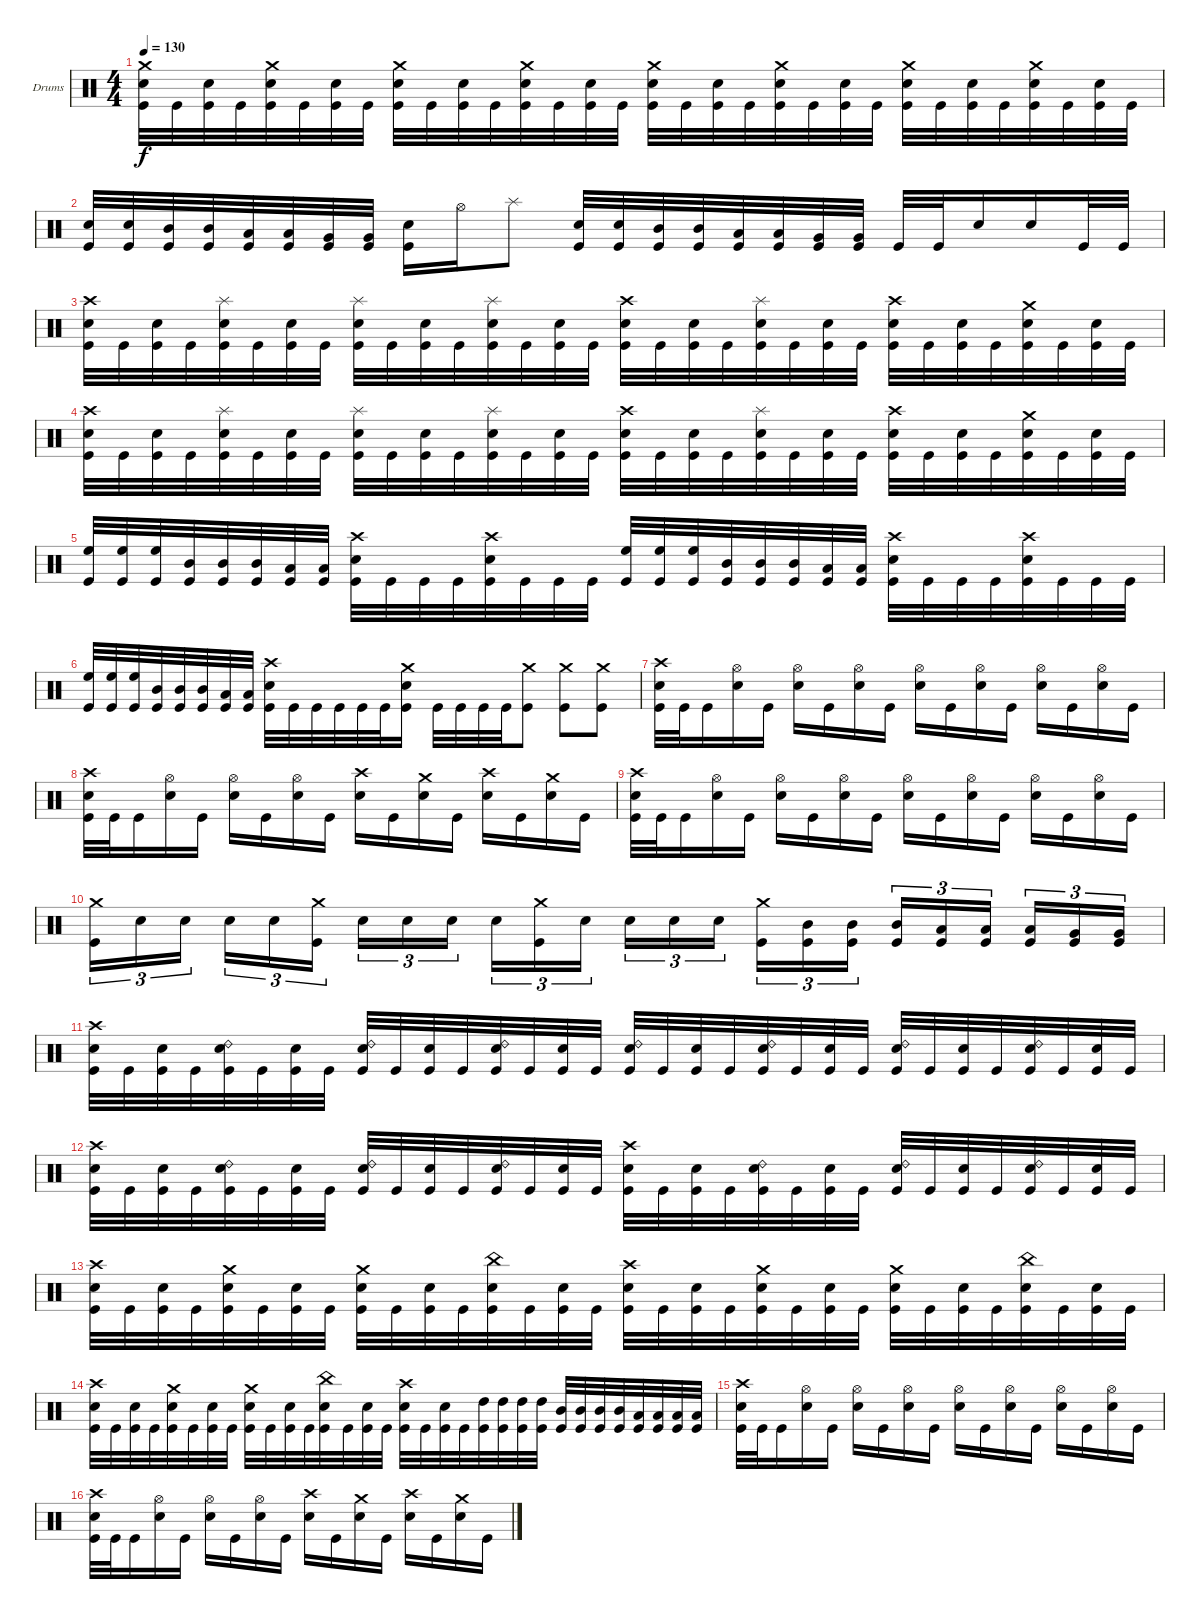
\defaultSystemsLayout 4
\bracketExtendMode groupsimilarinstruments
\firstSystemTrackNameOrientation horizontal
\otherSystemsTrackNameOrientation horizontal
\track ("Drumkit" "Drums") {instrument percussion}
\staff {score}
\articulation defaults
\ts (4 4)
\tempo 130
\clef neutral
\scale
0.472222
\ks c
("Kick (hit)" "Snare (hit) 2" "Crash medium (hit)").32{dy f} "Kick (hit)".32 ("Kick (hit)" "Snare (hit) 2").32 "Kick (hit)".32 ("Kick (hit)" "Snare (hit) 2" "Crash medium (hit)").32 "Kick (hit)".32 ("Kick (hit)" "Snare (hit) 2").32 "Kick (hit)".32 ("Kick (hit)" "Snare (hit) 2" "Crash medium (hit)").32 "Kick (hit)".32 ("Kick (hit)" "Snare (hit) 2").32 "Kick (hit)".32 ("Kick (hit)" "Snare (hit) 2" "Crash medium (hit)").32 "Kick (hit)".32 ("Kick (hit)" "Snare (hit) 2").32 "Kick (hit)".32 ("Kick (hit)" "Snare (hit) 2" "Crash medium (hit)").32 "Kick (hit)".32 ("Kick (hit)" "Snare (hit) 2").32 "Kick (hit)".32 ("Kick (hit)" "Snare (hit) 2" "Crash medium (hit)").32 "Kick (hit)".32 ("Kick (hit)" "Snare (hit) 2").32 "Kick (hit)".32 ("Kick (hit)" "Snare (hit) 2" "Crash medium (hit)").32 "Kick (hit)".32 ("Kick (hit)" "Snare (hit) 2").32 "Kick (hit)".32 ("Kick (hit)" "Snare (hit) 2" "Crash medium (hit)").32 "Kick (hit)".32 ("Kick (hit)" "Snare (hit) 2").32 "Kick (hit)".32 |
\scale
0.263889 ("Kick (hit)" "Snare (hit) 2").32 ("Kick (hit)" "Snare (hit) 2").32 ("Kick (hit)" "Mid Tom (hit)").32 ("Kick (hit)" "Mid Tom (hit)").32 ("Kick (hit)" "Low Tom (hit)").32 ("Kick (hit)" "Low Tom (hit)").32 ("Kick (hit)" "Very Low Tom (hit)").32 ("Kick (hit)" "Very Low Tom (hit)").32 ("Snare (hit) 2" "Kick (hit)").16 "Hi-Hat (open)".16 "Splash (hit)".8 ("Kick (hit)" "Snare (hit) 2").32 ("Kick (hit)" "Snare (hit) 2").32 ("Kick (hit)" "Mid Tom (hit)").32 ("Kick (hit)" "Mid Tom (hit)").32 ("Kick (hit)" "Low Tom (hit)").32 ("Kick (hit)" "Low Tom (hit)").32 ("Kick (hit)" "Very Low Tom (hit)").32 ("Kick (hit)" "Very Low Tom (hit)").32 "Kick (hit)".32 "Kick (hit)".32 "Snare (hit) 2".16 "Snare (hit) 2".16 "Kick (hit)".32 "Kick (hit)".32 |
\scale
0.263889 ("Snare (hit) 2" "Kick (hit)" "Crash high (hit)").32 "Kick (hit)".32 ("Snare (hit) 2" "Kick (hit)").32 "Kick (hit)".32 ("Snare (hit) 2" "Kick (hit)" "Splash (hit)").32 "Kick (hit)".32 ("Snare (hit) 2" "Kick (hit)").32 "Kick (hit)".32 ("Snare (hit) 2" "Kick (hit)" "Splash (hit)").32 "Kick (hit)".32 ("Snare (hit) 2" "Kick (hit)").32 "Kick (hit)".32 ("Snare (hit) 2" "Kick (hit)" "Splash (hit)").32 "Kick (hit)".32 ("Snare (hit) 2" "Kick (hit)").32 "Kick (hit)".32 ("Snare (hit) 2" "Kick (hit)" "Crash high (hit)").32 "Kick (hit)".32 ("Snare (hit) 2" "Kick (hit)").32 "Kick (hit)".32 ("Snare (hit) 2" "Kick (hit)" "Splash (hit)").32 "Kick (hit)".32 ("Snare (hit) 2" "Kick (hit)").32 "Kick (hit)".32 ("Snare (hit) 2" "Kick (hit)" "Crash high (hit)").32 "Kick (hit)".32 ("Snare (hit) 2" "Kick (hit)").32 "Kick (hit)".32 ("Snare (hit) 2" "Kick (hit)" "Crash medium (hit)").32 "Kick (hit)".32 ("Snare (hit) 2" "Kick (hit)").32 "Kick (hit)".32 |
\scale
0.333333 ("Snare (hit) 2" "Kick (hit)" "Crash high (hit)").32 "Kick (hit)".32 ("Snare (hit) 2" "Kick (hit)").32 "Kick (hit)".32 ("Snare (hit) 2" "Kick (hit)" "Splash (hit)").32 "Kick (hit)".32 ("Snare (hit) 2" "Kick (hit)").32 "Kick (hit)".32 ("Snare (hit) 2" "Kick (hit)" "Splash (hit)").32 "Kick (hit)".32 ("Snare (hit) 2" "Kick (hit)").32 "Kick (hit)".32 ("Snare (hit) 2" "Kick (hit)" "Splash (hit)").32 "Kick (hit)".32 ("Snare (hit) 2" "Kick (hit)").32 "Kick (hit)".32 ("Snare (hit) 2" "Kick (hit)" "Crash high (hit)").32 "Kick (hit)".32 ("Snare (hit) 2" "Kick (hit)").32 "Kick (hit)".32 ("Snare (hit) 2" "Kick (hit)" "Splash (hit)").32 "Kick (hit)".32 ("Snare (hit) 2" "Kick (hit)").32 "Kick (hit)".32 ("Snare (hit) 2" "Kick (hit)" "Crash high (hit)").32 "Kick (hit)".32 ("Snare (hit) 2" "Kick (hit)").32 "Kick (hit)".32 ("Snare (hit) 2" "Kick (hit)" "Crash medium (hit)").32 "Kick (hit)".32 ("Snare (hit) 2" "Kick (hit)").32 "Kick (hit)".32 |
\scale
0.333333 ("High Floor Tom (hit)" "Kick (hit)").32 ("Kick (hit)" "High Floor Tom (hit)").32 ("Kick (hit)" "High Floor Tom (hit)").32 ("Kick (hit)" "Mid Tom (hit)").32 ("Kick (hit)" "Mid Tom (hit)").32 ("Kick (hit)" "Mid Tom (hit)").32 ("Kick (hit)" "Low Tom (hit)").32 ("Kick (hit)" "Low Tom (hit)").32 ("Snare (hit) 2" "Kick (hit)" "Crash high (hit)").32 "Kick (hit)".32 "Kick (hit)".32 "Kick (hit)".32 ("Snare (hit) 2" "Kick (hit)" "Crash high (hit)").32 "Kick (hit)".32 "Kick (hit)".32 "Kick (hit)".32 ("High Floor Tom (hit)" "Kick (hit)").32 ("Kick (hit)" "High Floor Tom (hit)").32 ("Kick (hit)" "High Floor Tom (hit)").32 ("Kick (hit)" "Mid Tom (hit)").32 ("Kick (hit)" "Mid Tom (hit)").32 ("Kick (hit)" "Mid Tom (hit)").32 ("Kick (hit)" "Low Tom (hit)").32 ("Kick (hit)" "Low Tom (hit)").32 ("Snare (hit) 2" "Kick (hit)" "Crash high (hit)").32 "Kick (hit)".32 "Kick (hit)".32 "Kick (hit)".32 ("Snare (hit) 2" "Kick (hit)" "Crash high (hit)").32 "Kick (hit)".32 "Kick (hit)".32 "Kick (hit)".32 |
\scale
0.333333 ("High Floor Tom (hit)" "Kick (hit)").32 ("Kick (hit)" "High Floor Tom (hit)").32 ("Kick (hit)" "High Floor Tom (hit)").32 ("Kick (hit)" "Mid Tom (hit)").32 ("Kick (hit)" "Mid Tom (hit)").32 ("Kick (hit)" "Mid Tom (hit)").32 ("Kick (hit)" "Low Tom (hit)").32 ("Kick (hit)" "Low Tom (hit)").32 ("Snare (hit) 2" "Kick (hit)" "Crash high (hit)").32 "Kick (hit)".32 "Kick (hit)".32 "Kick (hit)".32 "Kick (hit)".32 "Kick (hit)".32 ("Snare (hit) 2" "Kick (hit)" "Crash medium (hit)").16 "Kick (hit)".32 "Kick (hit)".32 "Kick (hit)".32 "Kick (hit)".32 ("Kick (hit)" "Crash medium (hit)").8 ("Kick (hit)" "Crash medium (hit)").8 ("Kick (hit)" "Crash medium (hit)").8 |
\scale
0.333333 ("Kick (hit)" "Snare (hit) 2" "Crash high (hit)").32 "Kick (hit)".32 "Kick (hit)".16 ("Hi-Hat (open)" "Snare (hit) 2").16 "Kick (hit)".16 ("Hi-Hat (open)" "Snare (hit) 2").16 "Kick (hit)".16 ("Hi-Hat (open)" "Snare (hit) 2").16 "Kick (hit)".16 ("Hi-Hat (open)" "Snare (hit) 2").16 "Kick (hit)".16 ("Hi-Hat (open)" "Snare (hit) 2").16 "Kick (hit)".16 ("Hi-Hat (open)" "Snare (hit) 2").16 "Kick (hit)".16 ("Hi-Hat (open)" "Snare (hit) 2").16 "Kick (hit)".16 |
\scale
0.333333 ("Kick (hit)" "Snare (hit) 2" "Crash high (hit)").32 "Kick (hit)".32 "Kick (hit)".16 ("Hi-Hat (open)" "Snare (hit) 2").16 "Kick (hit)".16 ("Hi-Hat (open)" "Snare (hit) 2").16 "Kick (hit)".16 ("Snare (hit) 2" "Hi-Hat (open)").16 "Kick (hit)".16 ("Snare (hit) 2" "Crash high (hit)").16 "Kick (hit)".16 ("Snare (hit) 2" "Crash medium (hit)").16 "Kick (hit)".16 ("Snare (hit) 2" "Crash high (hit)").16 "Kick (hit)".16 ("Snare (hit) 2" "Crash medium (hit)").16 "Kick (hit)".16 |
\scale
0.333333 ("Kick (hit)" "Snare (hit) 2" "Crash high (hit)").32 "Kick (hit)".32 "Kick (hit)".16 ("Hi-Hat (open)" "Snare (hit) 2").16 "Kick (hit)".16 ("Hi-Hat (open)" "Snare (hit) 2").16 "Kick (hit)".16 ("Hi-Hat (open)" "Snare (hit) 2").16 "Kick (hit)".16 ("Hi-Hat (open)" "Snare (hit) 2").16 "Kick (hit)".16 ("Hi-Hat (open)" "Snare (hit) 2").16 "Kick (hit)".16 ("Hi-Hat (open)" "Snare (hit) 2").16 "Kick (hit)".16 ("Hi-Hat (open)" "Snare (hit) 2").16 "Kick (hit)".16 |
\scale
0.333333 ("Kick (hit)" "Crash medium (hit)").16{tu (3 2)} "Snare (hit) 2".16{tu (3 2)} "Snare (hit) 2".16{tu (3 2)} "Snare (hit) 2".16{tu (3 2)} "Snare (hit) 2".16{tu (3 2)} ("Kick (hit)" "Crash medium (hit)").16{tu (3 2)} "Snare (hit) 2".16{tu (3 2)} "Snare (hit) 2".16{tu (3 2)} "Snare (hit) 2".16{tu (3 2)} "Snare (hit) 2".16{tu (3 2)} ("Kick (hit)" "Crash medium (hit)").16{tu (3 2)} "Snare (hit) 2".16{tu (3 2)} "Snare (hit) 2".16{tu (3 2)} "Snare (hit) 2".16{tu (3 2)} "Snare (hit) 2".16{tu (3 2)} ("Kick (hit)" "Crash medium (hit)").16{tu (3 2)} ("Mid Tom (hit)" "Kick (hit)").16{tu (3 2)} ("Mid Tom (hit)" "Kick (hit)").16{tu (3 2)} ("Mid Tom (hit)" "Kick (hit)").16{tu (3 2)} ("Low Tom (hit)" "Kick (hit)").16{tu (3 2)} ("Low Tom (hit)" "Kick (hit)").16{tu (3 2)} ("Low Tom (hit)" "Kick (hit)").16{tu (3 2)} ("Very Low Tom (hit)" "Kick (hit)").16{tu (3 2)} ("Very Low Tom (hit)" "Kick (hit)").16{tu (3 2)} |
\scale
0.333333 ("Snare (hit) 2" "Kick (hit)" "Crash high (hit)").32 "Kick (hit)".32 ("Snare (hit) 2" "Kick (hit)").32 "Kick (hit)".32 ("Snare (hit) 2" "Kick (hit)" "Ride (bell) 2").32 "Kick (hit)".32 ("Snare (hit) 2" "Kick (hit)").32 "Kick (hit)".32 ("Snare (hit) 2" "Kick (hit)" "Ride (bell) 2").32 "Kick (hit)".32 ("Snare (hit) 2" "Kick (hit)").32 "Kick (hit)".32 ("Snare (hit) 2" "Kick (hit)" "Ride (bell) 2").32 "Kick (hit)".32 ("Snare (hit) 2" "Kick (hit)").32 "Kick (hit)".32 ("Snare (hit) 2" "Kick (hit)" "Ride (bell) 2").32 "Kick (hit)".32 ("Snare (hit) 2" "Kick (hit)").32 "Kick (hit)".32 ("Snare (hit) 2" "Kick (hit)" "Ride (bell) 2").32 "Kick (hit)".32 ("Snare (hit) 2" "Kick (hit)").32 "Kick (hit)".32 ("Snare (hit) 2" "Kick (hit)" "Ride (bell) 2").32 "Kick (hit)".32 ("Snare (hit) 2" "Kick (hit)").32 "Kick (hit)".32 ("Snare (hit) 2" "Kick (hit)" "Ride (bell) 2").32 "Kick (hit)".32 ("Snare (hit) 2" "Kick (hit)").32 "Kick (hit)".32 |
\scale
0.333333 ("Snare (hit) 2" "Kick (hit)" "Crash high (hit)").32 "Kick (hit)".32 ("Snare (hit) 2" "Kick (hit)").32 "Kick (hit)".32 ("Snare (hit) 2" "Kick (hit)" "Ride (bell) 2").32 "Kick (hit)".32 ("Snare (hit) 2" "Kick (hit)").32 "Kick (hit)".32 ("Snare (hit) 2" "Kick (hit)" "Ride (bell) 2").32 "Kick (hit)".32 ("Snare (hit) 2" "Kick (hit)").32 "Kick (hit)".32 ("Snare (hit) 2" "Kick (hit)" "Ride (bell) 2").32 "Kick (hit)".32 ("Snare (hit) 2" "Kick (hit)").32 "Kick (hit)".32 ("Snare (hit) 2" "Kick (hit)" "Crash high (hit)").32 "Kick (hit)".32 ("Snare (hit) 2" "Kick (hit)").32 "Kick (hit)".32 ("Snare (hit) 2" "Kick (hit)" "Ride (bell) 2").32 "Kick (hit)".32 ("Snare (hit) 2" "Kick (hit)").32 "Kick (hit)".32 ("Snare (hit) 2" "Kick (hit)" "Ride (bell) 2").32 "Kick (hit)".32 ("Snare (hit) 2" "Kick (hit)").32 "Kick (hit)".32 ("Snare (hit) 2" "Kick (hit)" "Ride (bell) 2").32 "Kick (hit)".32 ("Snare (hit) 2" "Kick (hit)").32 "Kick (hit)".32 |
\scale
0.333333 ("Snare (hit) 2" "Kick (hit)" "Crash high (hit)").32 "Kick (hit)".32 ("Snare (hit) 2" "Kick (hit)").32 "Kick (hit)".32 ("Snare (hit) 2" "Kick (hit)" "Crash medium (hit)").32 "Kick (hit)".32 ("Snare (hit) 2" "Kick (hit)").32 "Kick (hit)".32 ("Snare (hit) 2" "Kick (hit)" "Crash medium (hit)").32 "Kick (hit)".32 ("Snare (hit) 2" "Kick (hit)").32 "Kick (hit)".32 ("Snare (hit) 2" "Kick (hit)" "China (hit)").32 "Kick (hit)".32 ("Snare (hit) 2" "Kick (hit)").32 "Kick (hit)".32 ("Snare (hit) 2" "Kick (hit)" "Crash high (hit)").32 "Kick (hit)".32 ("Snare (hit) 2" "Kick (hit)").32 "Kick (hit)".32 ("Snare (hit) 2" "Kick (hit)" "Crash medium (hit)").32 "Kick (hit)".32 ("Snare (hit) 2" "Kick (hit)").32 "Kick (hit)".32 ("Snare (hit) 2" "Kick (hit)" "Crash medium (hit)").32 "Kick (hit)".32 ("Snare (hit) 2" "Kick (hit)").32 "Kick (hit)".32 ("Snare (hit) 2" "Kick (hit)" "China (hit)").32 "Kick (hit)".32 ("Snare (hit) 2" "Kick (hit)").32 "Kick (hit)".32 |
\scale
0.333333 ("Snare (hit) 2" "Kick (hit)" "Crash high (hit)").32 "Kick (hit)".32 ("Snare (hit) 2" "Kick (hit)").32 "Kick (hit)".32 ("Snare (hit) 2" "Kick (hit)" "Crash medium (hit)").32 "Kick (hit)".32 ("Snare (hit) 2" "Kick (hit)").32 "Kick (hit)".32 ("Snare (hit) 2" "Kick (hit)" "Crash medium (hit)").32 "Kick (hit)".32 ("Snare (hit) 2" "Kick (hit)").32 "Kick (hit)".32 ("Snare (hit) 2" "Kick (hit)" "China (hit)").32 "Kick (hit)".32 ("Snare (hit) 2" "Kick (hit)").32 "Kick (hit)".32 ("Snare (hit) 2" "Kick (hit)" "Crash high (hit)").32 "Kick (hit)".32 ("Snare (hit) 2" "Kick (hit)").32 "Kick (hit)".32 ("Kick (hit)" "High Tom (hit)").32 ("Kick (hit)" "High Tom (hit)").32 ("Kick (hit)" "High Tom (hit)").32 ("Kick (hit)" "High Tom (hit)").32 ("Kick (hit)" "Mid Tom (hit)").32 ("Kick (hit)" "Mid Tom (hit)").32 ("Kick (hit)" "Mid Tom (hit)").32 ("Kick (hit)" "Mid Tom (hit)").32 ("Kick (hit)" "Low Tom (hit)").32 ("Kick (hit)" "Low Tom (hit)").32 ("Kick (hit)" "Low Tom (hit)").32 ("Kick (hit)" "Low Tom (hit)").32 |
\scale
0.333333 ("Kick (hit)" "Snare (hit) 2" "Crash high (hit)").32 "Kick (hit)".32 "Kick (hit)".16 ("Hi-Hat (open)" "Snare (hit) 2").16 "Kick (hit)".16 ("Hi-Hat (open)" "Snare (hit) 2").16 "Kick (hit)".16 ("Hi-Hat (open)" "Snare (hit) 2").16 "Kick (hit)".16 ("Hi-Hat (open)" "Snare (hit) 2").16 "Kick (hit)".16 ("Hi-Hat (open)" "Snare (hit) 2").16 "Kick (hit)".16 ("Hi-Hat (open)" "Snare (hit) 2").16 "Kick (hit)".16 ("Hi-Hat (open)" "Snare (hit) 2").16 "Kick (hit)".16 |
\scale
0.333333 ("Kick (hit)" "Snare (hit) 2" "Crash high (hit)").32 "Kick (hit)".32 "Kick (hit)".16 ("Hi-Hat (open)" "Snare (hit) 2").16 "Kick (hit)".16 ("Hi-Hat (open)" "Snare (hit) 2").16 "Kick (hit)".16 ("Snare (hit) 2" "Hi-Hat (open)").16 "Kick (hit)".16 ("Snare (hit) 2" "Crash high (hit)").16 "Kick (hit)".16 ("Snare (hit) 2" "Crash medium (hit)").16 "Kick (hit)".16 ("Snare (hit) 2" "Crash high (hit)").16 "Kick (hit)".16 ("Snare (hit) 2" "Crash medium (hit)").16 "Kick (hit)".16
